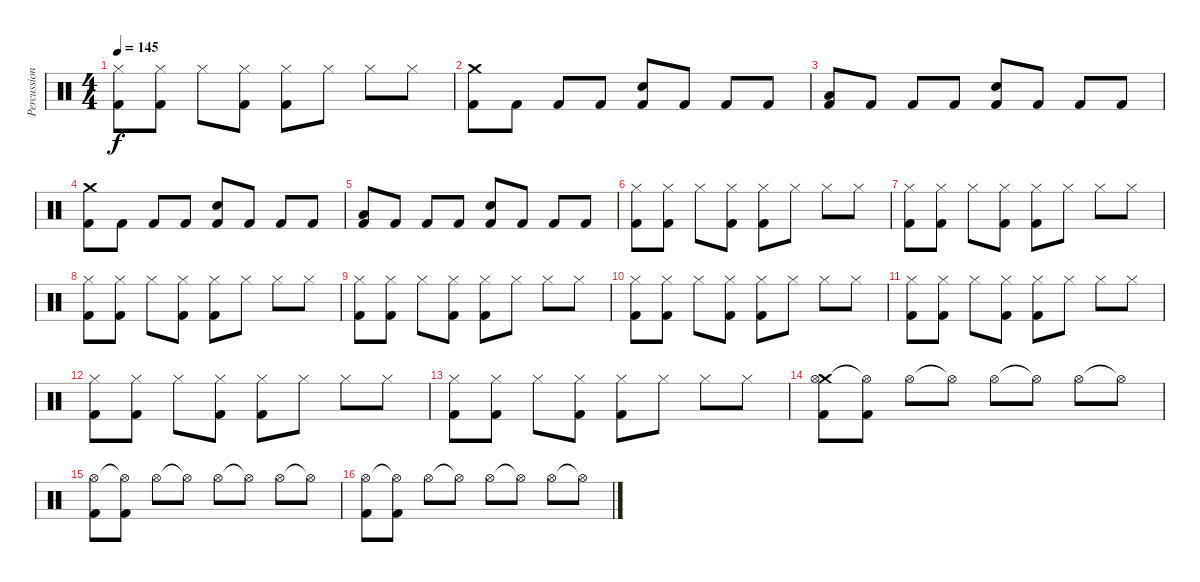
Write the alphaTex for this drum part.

\track ("Percussioni" "Percussion") {instrument percussion}
\staff {score}
\articulation defaults
\ts (4 4)
\tempo 145
\clef neutral
\ks c
("Hi-Hat (closed)" "Kick (hit) 2").8{dy f} ("Hi-Hat (closed)" "Kick (hit) 2").8 "Hi-Hat (closed)".8 ("Hi-Hat (closed)" "Kick (hit) 2").8 ("Hi-Hat (closed)" "Kick (hit) 2").8 "Hi-Hat (closed)".8 "Hi-Hat (closed)".8 "Hi-Hat (closed)".8 |
("Crash medium (hit)" "Kick (hit) 2").8 "Kick (hit) 2".8 "Kick (hit) 2".8 "Kick (hit) 2".8 ("Snare (hit) 2" "Kick (hit) 2").8 "Kick (hit) 2".8 "Kick (hit) 2".8 "Kick (hit) 2".8 |
("Low Floor Tom (hit)" "Kick (hit) 2").8 "Kick (hit) 2".8 "Kick (hit) 2".8 "Kick (hit) 2".8 ("Snare (hit) 2" "Kick (hit) 2").8 "Kick (hit) 2".8 "Kick (hit) 2".8 "Kick (hit) 2".8 |
("Crash medium (hit)" "Kick (hit) 2").8 "Kick (hit) 2".8 "Kick (hit) 2".8 "Kick (hit) 2".8 ("Snare (hit) 2" "Kick (hit) 2").8 "Kick (hit) 2".8 "Kick (hit) 2".8 "Kick (hit) 2".8 |
("Low Floor Tom (hit)" "Kick (hit) 2").8 "Kick (hit) 2".8 "Kick (hit) 2".8 "Kick (hit) 2".8 ("Snare (hit) 2" "Kick (hit) 2").8 "Kick (hit) 2".8 "Kick (hit) 2".8 "Kick (hit) 2".8 |
("Hi-Hat (closed)" "Kick (hit) 2").8 ("Hi-Hat (closed)" "Kick (hit) 2").8 "Hi-Hat (closed)".8 ("Hi-Hat (closed)" "Kick (hit) 2").8 ("Hi-Hat (closed)" "Kick (hit) 2").8 "Hi-Hat (closed)".8 "Hi-Hat (closed)".8 "Hi-Hat (closed)".8 |
("Hi-Hat (closed)" "Kick (hit) 2").8 ("Hi-Hat (closed)" "Kick (hit) 2").8 "Hi-Hat (closed)".8 ("Hi-Hat (closed)" "Kick (hit) 2").8 ("Hi-Hat (closed)" "Kick (hit) 2").8 "Hi-Hat (closed)".8 "Hi-Hat (closed)".8 "Hi-Hat (closed)".8 |
("Hi-Hat (closed)" "Kick (hit) 2").8 ("Hi-Hat (closed)" "Kick (hit) 2").8 "Hi-Hat (closed)".8 ("Hi-Hat (closed)" "Kick (hit) 2").8 ("Hi-Hat (closed)" "Kick (hit) 2").8 "Hi-Hat (closed)".8 "Hi-Hat (closed)".8 "Hi-Hat (closed)".8 |
("Hi-Hat (closed)" "Kick (hit) 2").8 ("Hi-Hat (closed)" "Kick (hit) 2").8 "Hi-Hat (closed)".8 ("Hi-Hat (closed)" "Kick (hit) 2").8 ("Hi-Hat (closed)" "Kick (hit) 2").8 "Hi-Hat (closed)".8 "Hi-Hat (closed)".8 "Hi-Hat (closed)".8 |
("Hi-Hat (closed)" "Kick (hit) 2").8 ("Hi-Hat (closed)" "Kick (hit) 2").8 "Hi-Hat (closed)".8 ("Hi-Hat (closed)" "Kick (hit) 2").8 ("Hi-Hat (closed)" "Kick (hit) 2").8 "Hi-Hat (closed)".8 "Hi-Hat (closed)".8 "Hi-Hat (closed)".8 |
("Hi-Hat (closed)" "Kick (hit) 2").8 ("Hi-Hat (closed)" "Kick (hit) 2").8 "Hi-Hat (closed)".8 ("Hi-Hat (closed)" "Kick (hit) 2").8 ("Hi-Hat (closed)" "Kick (hit) 2").8 "Hi-Hat (closed)".8 "Hi-Hat (closed)".8 "Hi-Hat (closed)".8 |
("Hi-Hat (closed)" "Kick (hit) 2").8 ("Hi-Hat (closed)" "Kick (hit) 2").8 "Hi-Hat (closed)".8 ("Hi-Hat (closed)" "Kick (hit) 2").8 ("Hi-Hat (closed)" "Kick (hit) 2").8 "Hi-Hat (closed)".8 "Hi-Hat (closed)".8 "Hi-Hat (closed)".8 |
("Hi-Hat (closed)" "Kick (hit) 2").8 ("Hi-Hat (closed)" "Kick (hit) 2").8 "Hi-Hat (closed)".8 ("Hi-Hat (closed)" "Kick (hit) 2").8 ("Hi-Hat (closed)" "Kick (hit) 2").8 "Hi-Hat (closed)".8 "Hi-Hat (closed)".8 "Hi-Hat (closed)".8 |
("Crash medium (hit)" "Hi-Hat (open)" "Kick (hit) 2").8 ("Hi-Hat (open)"{t} "Kick (hit) 2").8 "Hi-Hat (open)".8 "Hi-Hat (open)"{t}.8 "Hi-Hat (open)".8 "Hi-Hat (open)"{t}.8 "Hi-Hat (open)".8 "Hi-Hat (open)"{t}.8 |
("Hi-Hat (open)" "Kick (hit) 2").8 ("Hi-Hat (open)"{t} "Kick (hit) 2").8 "Hi-Hat (open)".8 "Hi-Hat (open)"{t}.8 "Hi-Hat (open)".8 "Hi-Hat (open)"{t}.8 "Hi-Hat (open)".8 "Hi-Hat (open)"{t}.8 |
("Hi-Hat (open)" "Kick (hit) 2").8 ("Hi-Hat (open)"{t} "Kick (hit) 2").8 "Hi-Hat (open)".8 "Hi-Hat (open)"{t}.8 "Hi-Hat (open)".8 "Hi-Hat (open)"{t}.8 "Hi-Hat (open)".8 "Hi-Hat (open)"{t}.8
